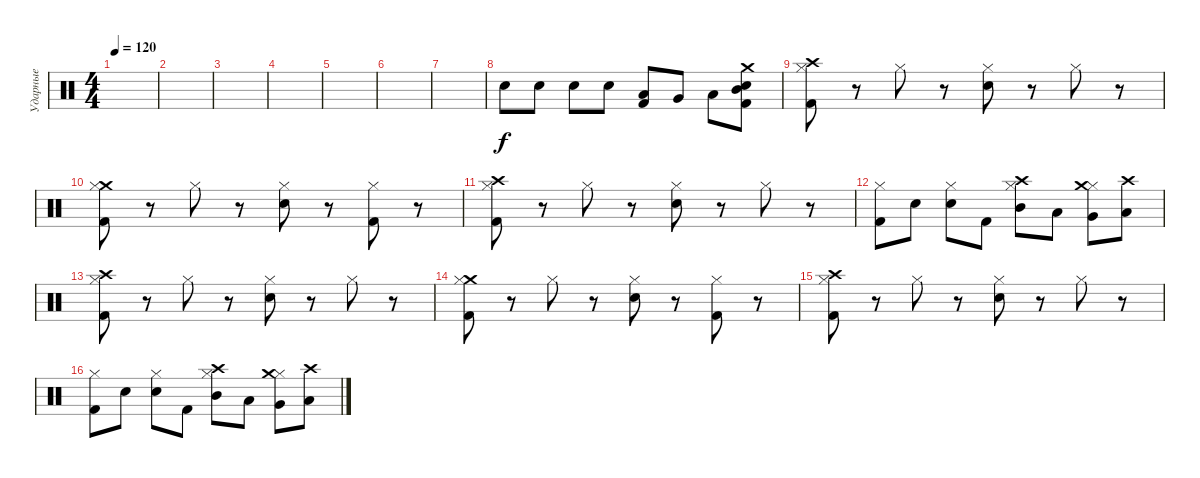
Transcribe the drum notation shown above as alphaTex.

\track ("Ударные" "Ударные") {instrument percussion}
\staff {score}
\articulation defaults
\ts (4 4)
\tempo 120
\clef neutral
\ks c
|
|
|
|
|
|
|
"Electric Snare (hit)".8 "Electric Snare (hit)".8 "Electric Snare (hit)".8 "Electric Snare (hit)".8 ("Low Floor Tom (hit)" "Kick (hit) 2").8 "Very Low Tom (hit)".8 "Low Tom (hit)".8 ("Mid Tom (hit)" "Crash medium (hit)" "Electric Snare (hit)" "Kick (hit) 2").8 |
("Crash high (hit)" "Hi-Hat (closed)" "Kick (hit) 2").8 r.8 "Hi-Hat (closed)".8 r.8 ("Snare (hit) 2" "Hi-Hat (closed)").8 r.8 "Hi-Hat (closed)".8 r.8 |
("Crash medium (hit)" "Hi-Hat (closed)" "Kick (hit) 2").8 r.8 "Hi-Hat (closed)".8 r.8 ("Snare (hit) 2" "Hi-Hat (closed)").8 r.8 ("Hi-Hat (closed)" "Kick (hit) 2").8 r.8 |
("Crash high (hit)" "Hi-Hat (closed)" "Kick (hit) 2").8 r.8 "Hi-Hat (closed)".8 r.8 ("Snare (hit) 2" "Hi-Hat (closed)").8 r.8 "Hi-Hat (closed)".8 r.8 |
("Hi-Hat (closed)" "Kick (hit) 2").8 "Snare (hit) 2".8 ("Snare (hit) 2" "Hi-Hat (closed)").8 "Kick (hit) 2".8 ("Mid Tom (hit)" "Hi-Hat (closed)" "Crash high (hit)").8 "Low Tom (hit)".8 ("Very Low Tom (hit)" "Hi-Hat (closed)" "Crash medium (hit)").8 ("Low Floor Tom (hit)" "Crash high (hit)").8 |
("Crash high (hit)" "Hi-Hat (closed)" "Kick (hit) 2").8 r.8 "Hi-Hat (closed)".8 r.8 ("Snare (hit) 2" "Hi-Hat (closed)").8 r.8 "Hi-Hat (closed)".8 r.8 |
("Crash medium (hit)" "Hi-Hat (closed)" "Kick (hit) 2").8 r.8 "Hi-Hat (closed)".8 r.8 ("Snare (hit) 2" "Hi-Hat (closed)").8 r.8 ("Hi-Hat (closed)" "Kick (hit) 2").8 r.8 |
("Crash high (hit)" "Hi-Hat (closed)" "Kick (hit) 2").8 r.8 "Hi-Hat (closed)".8 r.8 ("Snare (hit) 2" "Hi-Hat (closed)").8 r.8 "Hi-Hat (closed)".8 r.8 |
("Hi-Hat (closed)" "Kick (hit) 2").8 "Snare (hit) 2".8 ("Snare (hit) 2" "Hi-Hat (closed)").8 "Kick (hit) 2".8 ("Mid Tom (hit)" "Hi-Hat (closed)" "Crash high (hit)").8 "Low Tom (hit)".8 ("Very Low Tom (hit)" "Hi-Hat (closed)" "Crash medium (hit)").8 ("Low Floor Tom (hit)" "Crash high (hit)").8
